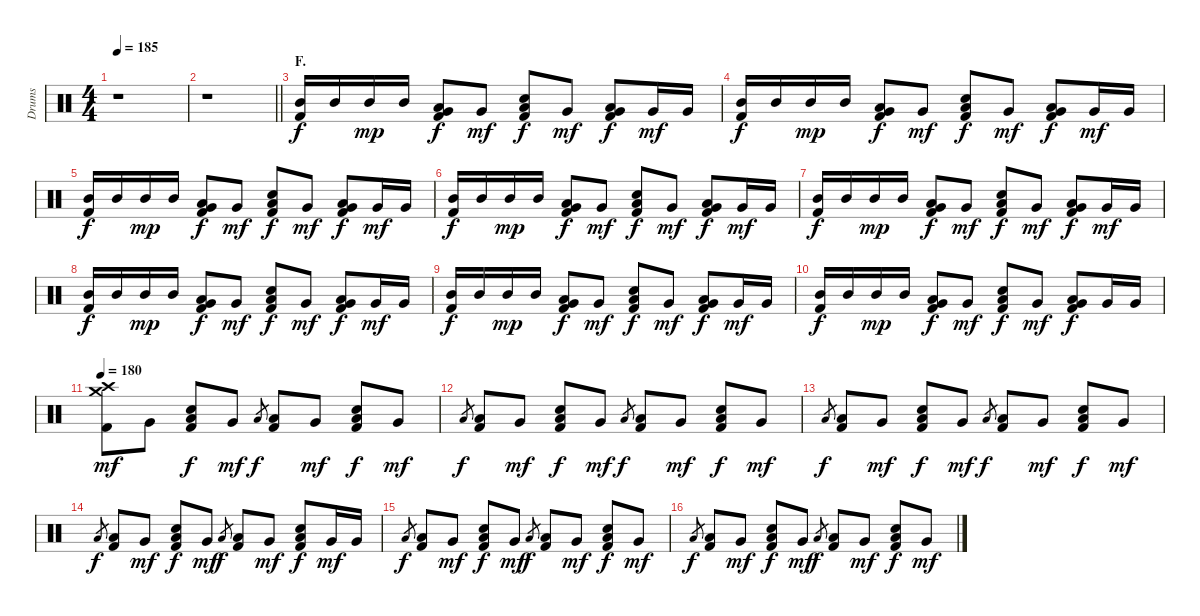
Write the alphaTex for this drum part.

\track ("Drums" "Drums") {instrument percussion}
\staff {score}
\articulation defaults
\ts (4 4)
\tempo 185
\clef neutral
\ks c
r.1{dy f} |
\barLineRight lightlight
r.1 |
\section ("" "F.")
("Mid Tom (hit)" "Kick (hit) 2").16{volume 13} "Mid Tom (hit)".16 "Mid Tom (hit)".16{dy mp} "Mid Tom (hit)".16 ("Low Tom (hit)" "Very Low Tom (hit)" "Kick (hit) 2").8{dy f} "Very Low Tom (hit)".8{dy mf} ("Low Tom (hit)" "Electric Snare (hit)" "Kick (hit) 2").8{dy f} "Very Low Tom (hit)".8{dy mf} ("Low Tom (hit)" "Very Low Tom (hit)" "Kick (hit) 2").8{dy f} "Very Low Tom (hit)".16{dy mf} "Very Low Tom (hit)".16 |
("Mid Tom (hit)" "Kick (hit) 2").16{dy f} "Mid Tom (hit)".16 "Mid Tom (hit)".16{dy mp} "Mid Tom (hit)".16 ("Low Tom (hit)" "Very Low Tom (hit)" "Kick (hit) 2").8{dy f} "Very Low Tom (hit)".8{dy mf} ("Low Tom (hit)" "Electric Snare (hit)" "Kick (hit) 2").8{dy f} "Very Low Tom (hit)".8{dy mf} ("Low Tom (hit)" "Very Low Tom (hit)" "Kick (hit) 2").8{dy f} "Very Low Tom (hit)".16{dy mf} "Very Low Tom (hit)".16 |
("Mid Tom (hit)" "Kick (hit) 2").16{dy f} "Mid Tom (hit)".16 "Mid Tom (hit)".16{dy mp} "Mid Tom (hit)".16 ("Low Tom (hit)" "Very Low Tom (hit)" "Kick (hit) 2").8{dy f} "Very Low Tom (hit)".8{dy mf} ("Low Tom (hit)" "Electric Snare (hit)" "Kick (hit) 2").8{dy f} "Very Low Tom (hit)".8{dy mf} ("Low Tom (hit)" "Very Low Tom (hit)" "Kick (hit) 2").8{dy f} "Very Low Tom (hit)".16{dy mf} "Very Low Tom (hit)".16 |
("Mid Tom (hit)" "Kick (hit) 2").16{dy f} "Mid Tom (hit)".16 "Mid Tom (hit)".16{dy mp} "Mid Tom (hit)".16 ("Low Tom (hit)" "Very Low Tom (hit)" "Kick (hit) 2").8{dy f} "Very Low Tom (hit)".8{dy mf} ("Low Tom (hit)" "Electric Snare (hit)" "Kick (hit) 2").8{dy f} "Very Low Tom (hit)".8{dy mf} ("Low Tom (hit)" "Very Low Tom (hit)" "Kick (hit) 2").8{dy f} "Very Low Tom (hit)".16{dy mf} "Very Low Tom (hit)".16 |
("Mid Tom (hit)" "Kick (hit) 2").16{dy f} "Mid Tom (hit)".16 "Mid Tom (hit)".16{dy mp} "Mid Tom (hit)".16 ("Low Tom (hit)" "Very Low Tom (hit)" "Kick (hit) 2").8{dy f} "Very Low Tom (hit)".8{dy mf} ("Low Tom (hit)" "Electric Snare (hit)" "Kick (hit) 2").8{dy f} "Very Low Tom (hit)".8{dy mf} ("Low Tom (hit)" "Very Low Tom (hit)" "Kick (hit) 2").8{dy f} "Very Low Tom (hit)".16{dy mf} "Very Low Tom (hit)".16 |
("Mid Tom (hit)" "Kick (hit) 2").16{dy f} "Mid Tom (hit)".16 "Mid Tom (hit)".16{dy mp} "Mid Tom (hit)".16 ("Low Tom (hit)" "Very Low Tom (hit)" "Kick (hit) 2").8{dy f} "Very Low Tom (hit)".8{dy mf} ("Low Tom (hit)" "Electric Snare (hit)" "Kick (hit) 2").8{dy f} "Very Low Tom (hit)".8{dy mf} ("Low Tom (hit)" "Very Low Tom (hit)" "Kick (hit) 2").8{dy f} "Very Low Tom (hit)".16{dy mf} "Very Low Tom (hit)".16 |
("Mid Tom (hit)" "Kick (hit) 2").16{dy f} "Mid Tom (hit)".16 "Mid Tom (hit)".16{dy mp} "Mid Tom (hit)".16 ("Low Tom (hit)" "Very Low Tom (hit)" "Kick (hit) 2").8{dy f} "Very Low Tom (hit)".8{dy mf} ("Low Tom (hit)" "Electric Snare (hit)" "Kick (hit) 2").8{dy f} "Very Low Tom (hit)".8{dy mf} ("Low Tom (hit)" "Very Low Tom (hit)" "Kick (hit) 2").8{dy f} "Very Low Tom (hit)".16{dy mf} "Very Low Tom (hit)".16 |
("Mid Tom (hit)" "Kick (hit) 2").16{dy f} "Mid Tom (hit)".16 "Mid Tom (hit)".16{dy mp} "Mid Tom (hit)".16 ("Low Tom (hit)" "Very Low Tom (hit)" "Kick (hit) 2").8{dy f} "Very Low Tom (hit)".8{dy mf} ("Low Tom (hit)" "Electric Snare (hit)" "Kick (hit) 2").8{dy f} "Very Low Tom (hit)".8{dy mf} ("Low Tom (hit)" "Very Low Tom (hit)" "Kick (hit) 2").8{dy f} "Very Low Tom (hit)".16 "Very Low Tom (hit)".16 |
\tempo 180
("Crash medium (hit)" "Crash high (hit)" "Kick (hit) 2").8{dy mf} "Very Low Tom (hit)".8 ("Low Tom (hit)" "Electric Snare (hit)" "Kick (hit) 2").8{dy f} "Very Low Tom (hit)".8{dy mf} "Low Tom (hit)".8{gr dy f} ("Low Tom (hit)" "Kick (hit) 2").8 "Very Low Tom (hit)".8{dy mf} ("Low Tom (hit)" "Electric Snare (hit)" "Kick (hit) 2").8{dy f} "Very Low Tom (hit)".8{dy mf} |
"Low Tom (hit)".8{gr dy f} ("Low Tom (hit)" "Kick (hit) 2").8 "Very Low Tom (hit)".8{dy mf} ("Low Tom (hit)" "Electric Snare (hit)" "Kick (hit) 2").8{dy f} "Very Low Tom (hit)".8{dy mf} "Low Tom (hit)".8{gr dy f} ("Low Tom (hit)" "Kick (hit) 2").8 "Very Low Tom (hit)".8{dy mf} ("Low Tom (hit)" "Electric Snare (hit)" "Kick (hit) 2").8{dy f} "Very Low Tom (hit)".8{dy mf} |
"Low Tom (hit)".8{gr dy f} ("Low Tom (hit)" "Kick (hit) 2").8 "Very Low Tom (hit)".8{dy mf} ("Low Tom (hit)" "Electric Snare (hit)" "Kick (hit) 2").8{dy f} "Very Low Tom (hit)".8{dy mf} "Low Tom (hit)".8{gr dy f} ("Low Tom (hit)" "Kick (hit) 2").8 "Very Low Tom (hit)".8{dy mf} ("Low Tom (hit)" "Electric Snare (hit)" "Kick (hit) 2").8{dy f} "Very Low Tom (hit)".8{dy mf} |
"Low Tom (hit)".8{gr dy f} ("Low Tom (hit)" "Kick (hit) 2").8 "Very Low Tom (hit)".8{dy mf} ("Low Tom (hit)" "Electric Snare (hit)" "Kick (hit) 2").8{dy f} "Very Low Tom (hit)".8{dy mf} "Low Tom (hit)".8{gr dy f} ("Low Tom (hit)" "Kick (hit) 2").8 "Very Low Tom (hit)".8{dy mf} ("Low Tom (hit)" "Electric Snare (hit)" "Kick (hit) 2").8{dy f} "Very Low Tom (hit)".16{dy mf} "Very Low Tom (hit)".16 |
"Low Tom (hit)".8{gr dy f} ("Low Tom (hit)" "Kick (hit) 2").8 "Very Low Tom (hit)".8{dy mf} ("Low Tom (hit)" "Electric Snare (hit)" "Kick (hit) 2").8{dy f} "Very Low Tom (hit)".8{dy mf} "Low Tom (hit)".8{gr dy f} ("Low Tom (hit)" "Kick (hit) 2").8 "Very Low Tom (hit)".8{dy mf} ("Low Tom (hit)" "Electric Snare (hit)" "Kick (hit) 2").8{dy f} "Very Low Tom (hit)".8{dy mf} |
"Low Tom (hit)".8{gr dy f} ("Low Tom (hit)" "Kick (hit) 2").8 "Very Low Tom (hit)".8{dy mf} ("Low Tom (hit)" "Electric Snare (hit)" "Kick (hit) 2").8{dy f} "Very Low Tom (hit)".8{dy mf} "Low Tom (hit)".8{gr dy f} ("Low Tom (hit)" "Kick (hit) 2").8 "Very Low Tom (hit)".8{dy mf} ("Low Tom (hit)" "Electric Snare (hit)" "Kick (hit) 2").8{dy f} "Very Low Tom (hit)".8{dy mf}
